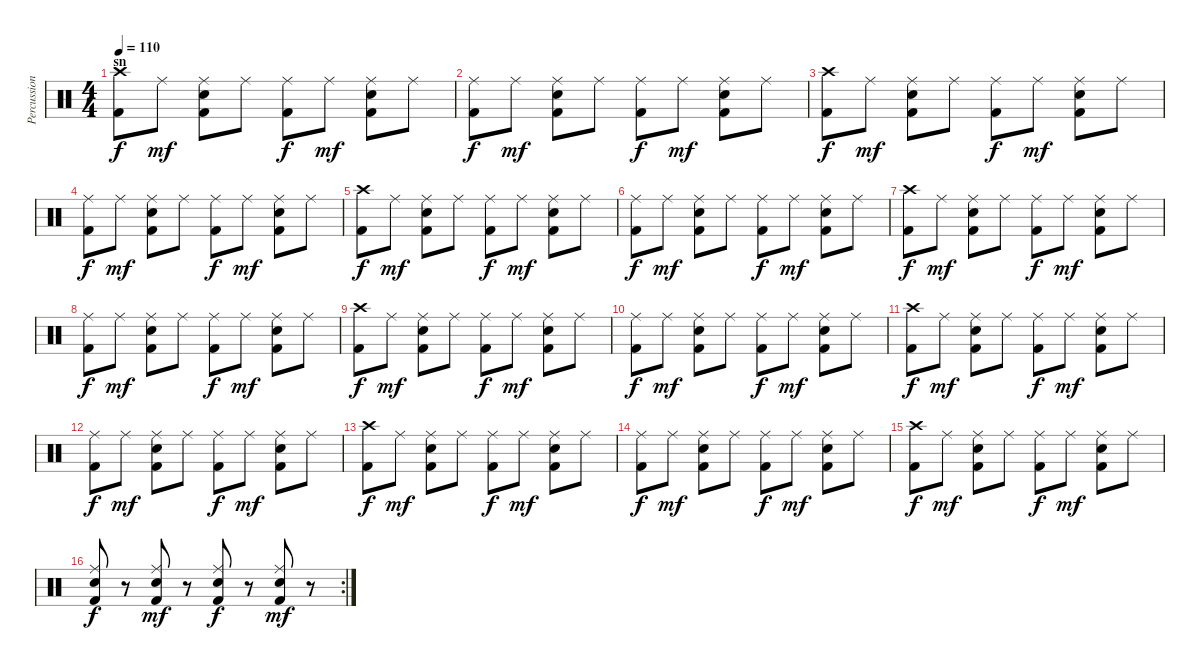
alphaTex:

\track ("Percussion" "Percussion") {instrument percussion}
\staff {score}
\articulation defaults
\ts (4 4)
\section ("" "sn")
\tempo 110
\clef neutral
\ks c
("Crash high (hit)" "Kick (hit) 2").8{dy f} "Ride (middle)".8{dy mf} ("Ride (middle)" "Electric Snare (hit)" "Kick (hit) 2").8 "Ride (middle)".8 ("Ride (middle)" "Kick (hit) 2").8{dy f} "Ride (middle)".8{dy mf} ("Ride (middle)" "Electric Snare (hit)" "Kick (hit) 2").8 "Ride (middle)".8 |
("Ride (middle)" "Kick (hit) 2").8{dy f} "Ride (middle)".8{dy mf} ("Ride (middle)" "Electric Snare (hit)" "Kick (hit) 2").8 "Ride (middle)".8 ("Ride (middle)" "Kick (hit) 2").8{dy f} "Ride (middle)".8{dy mf} ("Ride (middle)" "Electric Snare (hit)" "Kick (hit) 2").8 "Ride (middle)".8 |
("Crash high (hit)" "Kick (hit) 2").8{dy f} "Ride (middle)".8{dy mf} ("Ride (middle)" "Electric Snare (hit)" "Kick (hit) 2").8 "Ride (middle)".8 ("Ride (middle)" "Kick (hit) 2").8{dy f} "Ride (middle)".8{dy mf} ("Ride (middle)" "Electric Snare (hit)" "Kick (hit) 2").8 "Ride (middle)".8 |
("Ride (middle)" "Kick (hit) 2").8{dy f} "Ride (middle)".8{dy mf} ("Ride (middle)" "Electric Snare (hit)" "Kick (hit) 2").8 "Ride (middle)".8 ("Ride (middle)" "Kick (hit) 2").8{dy f} "Ride (middle)".8{dy mf} ("Ride (middle)" "Electric Snare (hit)" "Kick (hit) 2").8 "Ride (middle)".8 |
("Crash high (hit)" "Kick (hit) 2").8{dy f} "Ride (middle)".8{dy mf} ("Ride (middle)" "Electric Snare (hit)" "Kick (hit) 2").8 "Ride (middle)".8 ("Ride (middle)" "Kick (hit) 2").8{dy f} "Ride (middle)".8{dy mf} ("Ride (middle)" "Electric Snare (hit)" "Kick (hit) 2").8 "Ride (middle)".8 |
("Ride (middle)" "Kick (hit) 2").8{dy f} "Ride (middle)".8{dy mf} ("Ride (middle)" "Electric Snare (hit)" "Kick (hit) 2").8 "Ride (middle)".8 ("Ride (middle)" "Kick (hit) 2").8{dy f} "Ride (middle)".8{dy mf} ("Ride (middle)" "Electric Snare (hit)" "Kick (hit) 2").8 "Ride (middle)".8 |
("Crash high (hit)" "Kick (hit) 2").8{dy f} "Ride (middle)".8{dy mf} ("Ride (middle)" "Electric Snare (hit)" "Kick (hit) 2").8 "Ride (middle)".8 ("Ride (middle)" "Kick (hit) 2").8{dy f} "Ride (middle)".8{dy mf} ("Ride (middle)" "Electric Snare (hit)" "Kick (hit) 2").8 "Ride (middle)".8 |
("Ride (middle)" "Kick (hit) 2").8{dy f} "Ride (middle)".8{dy mf} ("Ride (middle)" "Electric Snare (hit)" "Kick (hit) 2").8 "Ride (middle)".8 ("Ride (middle)" "Kick (hit) 2").8{dy f} "Ride (middle)".8{dy mf} ("Ride (middle)" "Electric Snare (hit)" "Kick (hit) 2").8 "Ride (middle)".8 |
("Crash high (hit)" "Kick (hit) 2").8{dy f} "Ride (middle)".8{dy mf} ("Ride (middle)" "Electric Snare (hit)" "Kick (hit) 2").8 "Ride (middle)".8 ("Ride (middle)" "Kick (hit) 2").8{dy f} "Ride (middle)".8{dy mf} ("Ride (middle)" "Electric Snare (hit)" "Kick (hit) 2").8 "Ride (middle)".8 |
("Ride (middle)" "Kick (hit) 2").8{dy f} "Ride (middle)".8{dy mf} ("Ride (middle)" "Electric Snare (hit)" "Kick (hit) 2").8 "Ride (middle)".8 ("Ride (middle)" "Kick (hit) 2").8{dy f} "Ride (middle)".8{dy mf} ("Ride (middle)" "Electric Snare (hit)" "Kick (hit) 2").8 "Ride (middle)".8 |
("Crash high (hit)" "Kick (hit) 2").8{dy f} "Ride (middle)".8{dy mf} ("Ride (middle)" "Electric Snare (hit)" "Kick (hit) 2").8 "Ride (middle)".8 ("Ride (middle)" "Kick (hit) 2").8{dy f} "Ride (middle)".8{dy mf} ("Ride (middle)" "Electric Snare (hit)" "Kick (hit) 2").8 "Ride (middle)".8 |
("Ride (middle)" "Kick (hit) 2").8{dy f} "Ride (middle)".8{dy mf} ("Ride (middle)" "Electric Snare (hit)" "Kick (hit) 2").8 "Ride (middle)".8 ("Ride (middle)" "Kick (hit) 2").8{dy f} "Ride (middle)".8{dy mf} ("Ride (middle)" "Electric Snare (hit)" "Kick (hit) 2").8 "Ride (middle)".8 |
("Crash high (hit)" "Kick (hit) 2").8{dy f} "Ride (middle)".8{dy mf} ("Ride (middle)" "Electric Snare (hit)" "Kick (hit) 2").8 "Ride (middle)".8 ("Ride (middle)" "Kick (hit) 2").8{dy f} "Ride (middle)".8{dy mf} ("Ride (middle)" "Electric Snare (hit)" "Kick (hit) 2").8 "Ride (middle)".8 |
("Ride (middle)" "Kick (hit) 2").8{dy f} "Ride (middle)".8{dy mf} ("Ride (middle)" "Electric Snare (hit)" "Kick (hit) 2").8 "Ride (middle)".8 ("Ride (middle)" "Kick (hit) 2").8{dy f} "Ride (middle)".8{dy mf} ("Ride (middle)" "Electric Snare (hit)" "Kick (hit) 2").8 "Ride (middle)".8 |
("Crash high (hit)" "Kick (hit) 2").8{dy f} "Ride (middle)".8{dy mf} ("Ride (middle)" "Electric Snare (hit)" "Kick (hit) 2").8 "Ride (middle)".8 ("Ride (middle)" "Kick (hit) 2").8{dy f} "Ride (middle)".8{dy mf} ("Ride (middle)" "Electric Snare (hit)" "Kick (hit) 2").8 "Ride (middle)".8 |
\rc 2
("Ride (middle)" "Electric Snare (hit)" "Kick (hit) 2").8{dy f} r.8 ("Ride (middle)" "Electric Snare (hit)" "Kick (hit) 2").8{dy mf} r.8 ("Ride (middle)" "Electric Snare (hit)" "Kick (hit) 2").8{dy f} r.8 ("Ride (middle)" "Electric Snare (hit)" "Kick (hit) 2").8{dy mf} r.8
